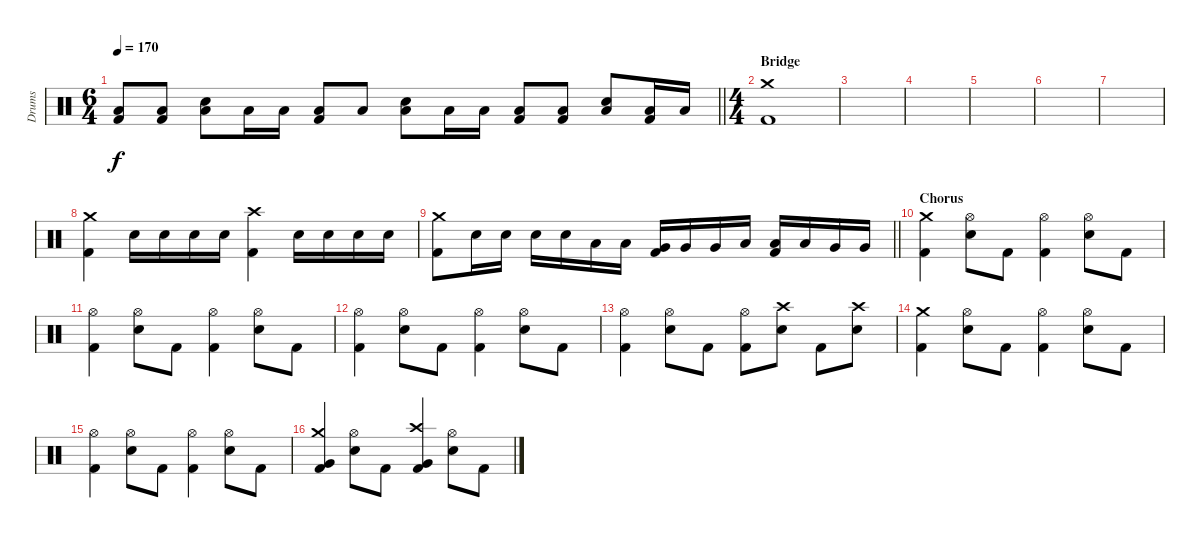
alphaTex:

\track ("Drums" "Drums") {instrument percussion}
\staff {score}
\articulation defaults
\ts (6 4)
\tempo 170
\clef neutral
\barLineRight lightlight
\ks c
("Low Floor Tom (hit)" "Kick (hit) 2").8{dy f} ("Low Floor Tom (hit)" "Kick (hit) 2").8 ("Low Floor Tom (hit)" "Electric Snare (hit)").8 "Low Floor Tom (hit)".16 "Low Floor Tom (hit)".16 ("Low Floor Tom (hit)" "Kick (hit) 2").8 "Low Floor Tom (hit)".8 ("Low Floor Tom (hit)" "Electric Snare (hit)").8 "Low Floor Tom (hit)".16 "Low Floor Tom (hit)".16 ("Low Floor Tom (hit)" "Kick (hit) 2").8 ("Low Floor Tom (hit)" "Kick (hit) 2").8 ("Low Floor Tom (hit)" "Electric Snare (hit)").8 ("Low Floor Tom (hit)" "Kick (hit) 2").16 "Low Floor Tom (hit)".16 |
\ts (4 4)
\section ("" "Bridge")
("Crash medium (hit)" "Kick (hit) 2").1 |
|
|
|
|
|
("Crash medium (hit)" "Kick (hit) 2").4 "Electric Snare (hit)".16 "Electric Snare (hit)".16 "Electric Snare (hit)".16 "Electric Snare (hit)".16 ("Crash high (hit)" "Kick (hit) 2").4 "Electric Snare (hit)".16 "Electric Snare (hit)".16 "Electric Snare (hit)".16 "Electric Snare (hit)".16 |
\barLineRight lightlight
("Crash medium (hit)" "Kick (hit) 2").8 "Electric Snare (hit)".16 "Electric Snare (hit)".16 "Electric Snare (hit)".16 "Electric Snare (hit)".16 "Low Tom (hit)".16 "Low Tom (hit)".16 ("Very Low Tom (hit)" "Kick (hit) 2").16 "Very Low Tom (hit)".16 "Very Low Tom (hit)".16 "Low Floor Tom (hit)".16 ("Low Tom (hit)" "Kick (hit) 2").16 "Low Tom (hit)".16 "Very Low Tom (hit)".16 "Very Low Tom (hit)".16 |
\section ("" "Chorus")
("Crash medium (hit)" "Kick (hit) 2").4 ("Hi-Hat (open)" "Electric Snare (hit)").8 "Kick (hit) 2".8 ("Hi-Hat (open)" "Kick (hit) 2").4 ("Hi-Hat (open)" "Electric Snare (hit)").8 "Kick (hit) 2".8 |
("Hi-Hat (open)" "Kick (hit) 2").4 ("Hi-Hat (open)" "Electric Snare (hit)").8 "Kick (hit) 2".8 ("Hi-Hat (open)" "Kick (hit) 2").4 ("Hi-Hat (open)" "Electric Snare (hit)").8 "Kick (hit) 2".8 |
("Hi-Hat (open)" "Kick (hit) 2").4 ("Hi-Hat (open)" "Electric Snare (hit)").8 "Kick (hit) 2".8 ("Hi-Hat (open)" "Kick (hit) 2").4 ("Hi-Hat (open)" "Electric Snare (hit)").8 "Kick (hit) 2".8 |
("Hi-Hat (open)" "Kick (hit) 2").4 ("Hi-Hat (open)" "Electric Snare (hit)").8 "Kick (hit) 2".8 ("Hi-Hat (open)" "Kick (hit) 2").8 ("Crash high (hit)" "Electric Snare (hit)").8 "Kick (hit) 2".8 ("Crash high (hit)" "Electric Snare (hit)").8 |
("Crash medium (hit)" "Kick (hit) 2").4 ("Hi-Hat (open)" "Electric Snare (hit)").8 "Kick (hit) 2".8 ("Hi-Hat (open)" "Kick (hit) 2").4 ("Hi-Hat (open)" "Electric Snare (hit)").8 "Kick (hit) 2".8 |
("Hi-Hat (open)" "Kick (hit) 2").4 ("Hi-Hat (open)" "Electric Snare (hit)").8 "Kick (hit) 2".8 ("Hi-Hat (open)" "Kick (hit) 2").4 ("Hi-Hat (open)" "Electric Snare (hit)").8 "Kick (hit) 2".8 |
("Crash medium (hit)" "Very Low Tom (hit)" "Kick (hit) 2").4 ("Hi-Hat (open)" "Electric Snare (hit)").8 "Kick (hit) 2".8 ("Crash high (hit)" "Very Low Tom (hit)" "Kick (hit) 2").4 ("Hi-Hat (open)" "Electric Snare (hit)").8 "Kick (hit) 2".8
